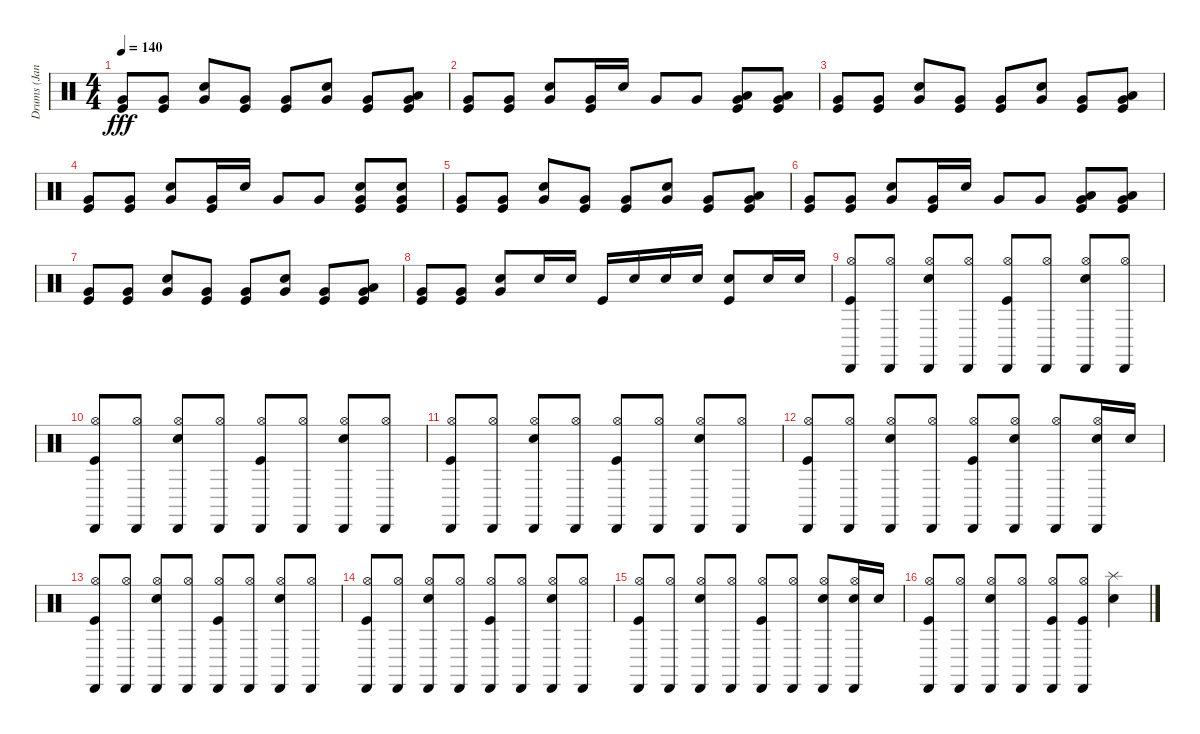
\track ("Drums (Janet)" "Drums (Jan") {instrument percussion}
\staff {score}
\articulation defaults
\ts (4 4)
\tempo 140
\clef neutral
\ks c
("Very Low Tom (hit)" "Kick (hit)").8{dy fff} ("Very Low Tom (hit)" "Kick (hit)").8 ("Very Low Tom (hit)" "Snare (hit) 2").8 ("Very Low Tom (hit)" "Kick (hit)").8 ("Very Low Tom (hit)" "Kick (hit)").8 ("Very Low Tom (hit)" "Snare (hit) 2").8 ("Very Low Tom (hit)" "Kick (hit)").8 ("Very Low Tom (hit)" "Low Tom (hit)" "Kick (hit)").8 |
("Very Low Tom (hit)" "Kick (hit)").8 ("Very Low Tom (hit)" "Kick (hit)").8 ("Very Low Tom (hit)" "Snare (hit) 2").8 ("Very Low Tom (hit)" "Kick (hit)").16 "Snare (hit) 2".16 "Very Low Tom (hit)".8 "Very Low Tom (hit)".8 ("Very Low Tom (hit)" "Low Tom (hit)" "Kick (hit)").8 ("Very Low Tom (hit)" "Low Tom (hit)" "Kick (hit)").8 |
("Very Low Tom (hit)" "Kick (hit)").8 ("Very Low Tom (hit)" "Kick (hit)").8 ("Very Low Tom (hit)" "Snare (hit) 2").8 ("Very Low Tom (hit)" "Kick (hit)").8 ("Very Low Tom (hit)" "Kick (hit)").8 ("Very Low Tom (hit)" "Snare (hit) 2").8 ("Very Low Tom (hit)" "Kick (hit)").8 ("Very Low Tom (hit)" "Low Tom (hit)" "Kick (hit)").8 |
("Very Low Tom (hit)" "Kick (hit)").8 ("Very Low Tom (hit)" "Kick (hit)").8 ("Very Low Tom (hit)" "Snare (hit) 2").8 ("Very Low Tom (hit)" "Kick (hit)").16 "Snare (hit) 2".16 "Very Low Tom (hit)".8 "Very Low Tom (hit)".8 ("Very Low Tom (hit)" "Snare (hit) 2" "Kick (hit)").8 ("Very Low Tom (hit)" "Snare (hit) 2" "Kick (hit)").8 |
("Very Low Tom (hit)" "Kick (hit)").8 ("Very Low Tom (hit)" "Kick (hit)").8 ("Very Low Tom (hit)" "Snare (hit) 2").8 ("Very Low Tom (hit)" "Kick (hit)").8 ("Very Low Tom (hit)" "Kick (hit)").8 ("Very Low Tom (hit)" "Snare (hit) 2").8 ("Very Low Tom (hit)" "Kick (hit)").8 ("Very Low Tom (hit)" "Low Tom (hit)" "Kick (hit)").8 |
("Very Low Tom (hit)" "Kick (hit)").8 ("Very Low Tom (hit)" "Kick (hit)").8 ("Very Low Tom (hit)" "Snare (hit) 2").8 ("Very Low Tom (hit)" "Kick (hit)").16 "Snare (hit) 2".16 "Very Low Tom (hit)".8 "Very Low Tom (hit)".8 ("Very Low Tom (hit)" "Low Tom (hit)" "Kick (hit)").8 ("Very Low Tom (hit)" "Low Tom (hit)" "Kick (hit)").8 |
("Very Low Tom (hit)" "Kick (hit)").8 ("Very Low Tom (hit)" "Kick (hit)").8 ("Very Low Tom (hit)" "Snare (hit) 2").8 ("Very Low Tom (hit)" "Kick (hit)").8 ("Very Low Tom (hit)" "Kick (hit)").8 ("Very Low Tom (hit)" "Snare (hit) 2").8 ("Very Low Tom (hit)" "Kick (hit)").8 ("Very Low Tom (hit)" "Low Tom (hit)" "Kick (hit)").8 |
("Very Low Tom (hit)" "Kick (hit)").8 ("Very Low Tom (hit)" "Kick (hit)").8 ("Very Low Tom (hit)" "Snare (hit) 2").8 "Snare (hit) 2".16 "Snare (hit) 2".16 "Kick (hit)".16 "Snare (hit) 2".16 "Snare (hit) 2".16 "Snare (hit) 2".16 ("Snare (hit) 2" "Kick (hit)").8 "Snare (hit) 2".16 "Snare (hit) 2".16 |
("Hi-Hat (open)" "Cabasa (hit)" "Kick (hit)").8 ("Hi-Hat (open)" "Cabasa (hit)").8 ("Hi-Hat (open)" "Cabasa (hit)" "Snare (hit) 2").8 ("Hi-Hat (open)" "Cabasa (hit)").8 ("Hi-Hat (open)" "Cabasa (hit)" "Kick (hit)").8 ("Hi-Hat (open)" "Cabasa (hit)").8 ("Hi-Hat (open)" "Cabasa (hit)" "Snare (hit) 2").8 ("Hi-Hat (open)" "Cabasa (hit)").8 |
("Hi-Hat (open)" "Cabasa (hit)" "Kick (hit)").8 ("Hi-Hat (open)" "Cabasa (hit)").8 ("Hi-Hat (open)" "Cabasa (hit)" "Snare (hit) 2").8 ("Hi-Hat (open)" "Cabasa (hit)").8 ("Hi-Hat (open)" "Cabasa (hit)" "Kick (hit)").8 ("Hi-Hat (open)" "Cabasa (hit)").8 ("Hi-Hat (open)" "Cabasa (hit)" "Snare (hit) 2").8 ("Hi-Hat (open)" "Cabasa (hit)").8 |
("Hi-Hat (open)" "Cabasa (hit)" "Kick (hit)").8 ("Hi-Hat (open)" "Cabasa (hit)").8 ("Hi-Hat (open)" "Cabasa (hit)" "Snare (hit) 2").8 ("Hi-Hat (open)" "Cabasa (hit)").8 ("Hi-Hat (open)" "Cabasa (hit)" "Kick (hit)").8 ("Hi-Hat (open)" "Cabasa (hit)").8 ("Hi-Hat (open)" "Cabasa (hit)" "Snare (hit) 2").8 ("Hi-Hat (open)" "Cabasa (hit)").8 |
("Hi-Hat (open)" "Cabasa (hit)" "Kick (hit)").8 ("Hi-Hat (open)" "Cabasa (hit)").8 ("Hi-Hat (open)" "Cabasa (hit)" "Snare (hit) 2").8 ("Hi-Hat (open)" "Cabasa (hit)").8 ("Hi-Hat (open)" "Cabasa (hit)" "Kick (hit)").8 ("Hi-Hat (open)" "Cabasa (hit)" "Snare (hit) 2").8 ("Hi-Hat (open)" "Cabasa (hit)").8 ("Hi-Hat (open)" "Cabasa (hit)" "Snare (hit) 2").16 "Snare (hit) 2".16 |
("Hi-Hat (open)" "Cabasa (hit)" "Kick (hit)").8 ("Hi-Hat (open)" "Cabasa (hit)").8 ("Hi-Hat (open)" "Cabasa (hit)" "Snare (hit) 2").8 ("Hi-Hat (open)" "Cabasa (hit)").8 ("Hi-Hat (open)" "Cabasa (hit)" "Kick (hit)").8 ("Hi-Hat (open)" "Cabasa (hit)").8 ("Hi-Hat (open)" "Cabasa (hit)" "Snare (hit) 2").8 ("Hi-Hat (open)" "Cabasa (hit)").8 |
("Hi-Hat (open)" "Cabasa (hit)" "Kick (hit)").8 ("Hi-Hat (open)" "Cabasa (hit)").8 ("Hi-Hat (open)" "Cabasa (hit)" "Snare (hit) 2").8 ("Hi-Hat (open)" "Cabasa (hit)").8 ("Hi-Hat (open)" "Cabasa (hit)" "Kick (hit)").8 ("Hi-Hat (open)" "Cabasa (hit)").8 ("Hi-Hat (open)" "Cabasa (hit)" "Snare (hit) 2").8 ("Hi-Hat (open)" "Cabasa (hit)").8 |
("Hi-Hat (open)" "Cabasa (hit)" "Kick (hit)").8 ("Hi-Hat (open)" "Cabasa (hit)").8 ("Hi-Hat (open)" "Cabasa (hit)" "Snare (hit) 2").8 ("Hi-Hat (open)" "Cabasa (hit)").8 ("Hi-Hat (open)" "Cabasa (hit)" "Kick (hit)").8 ("Hi-Hat (open)" "Cabasa (hit)").8 ("Hi-Hat (open)" "Cabasa (hit)" "Snare (hit) 2").8 ("Hi-Hat (open)" "Cabasa (hit)" "Snare (hit) 2").16 "Snare (hit) 2".16 |
("Hi-Hat (open)" "Cabasa (hit)" "Kick (hit)").8 ("Hi-Hat (open)" "Cabasa (hit)").8 ("Hi-Hat (open)" "Cabasa (hit)" "Snare (hit) 2").8 ("Hi-Hat (open)" "Cabasa (hit)").8 ("Hi-Hat (open)" "Cabasa (hit)" "Kick (hit)").8 ("Hi-Hat (open)" "Cabasa (hit)" "Kick (hit)").8 ("Splash (hit)" "Snare (hit) 2").4
